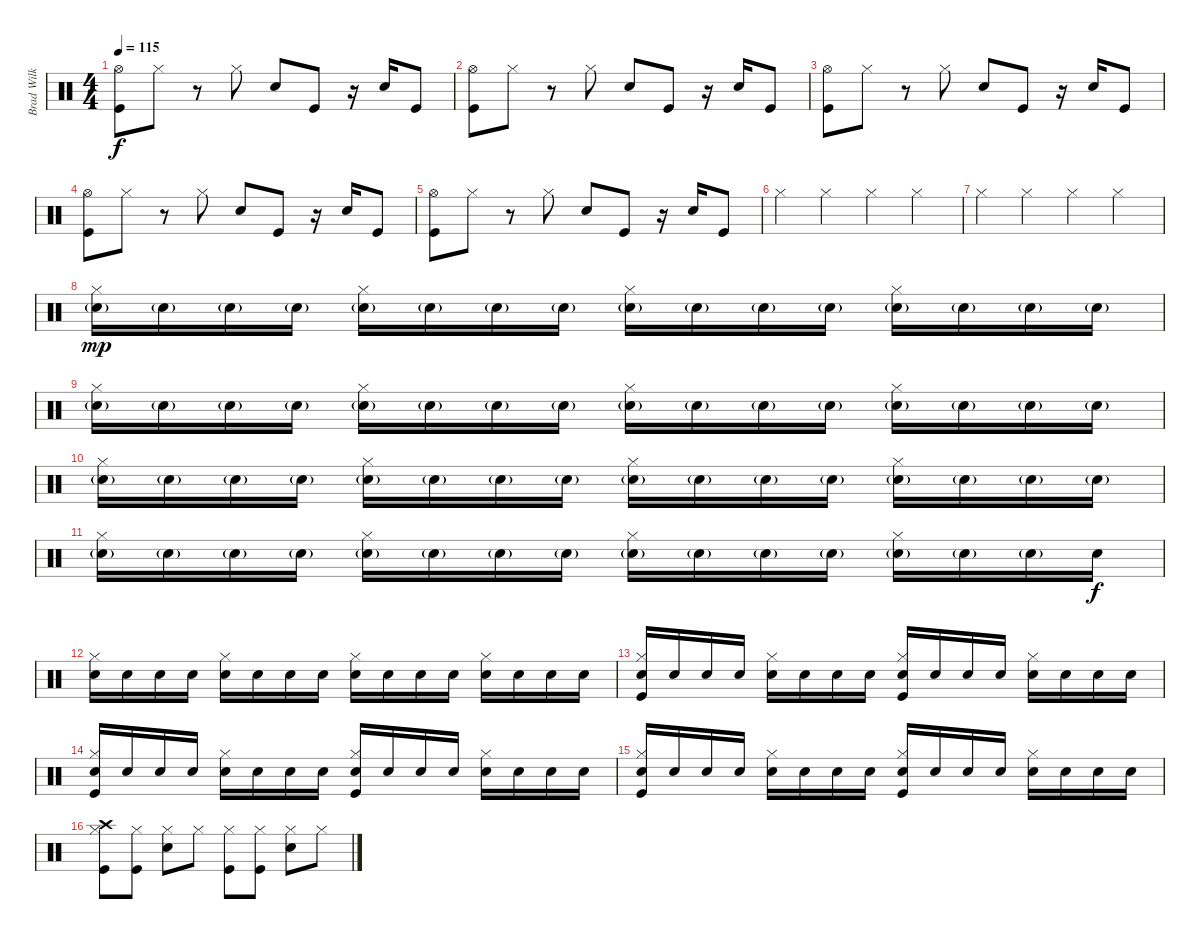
\track ("Brad Wilk - Drums" "Brad Wilk ") {instrument percussion}
\staff {score}
\articulation defaults
\ts (4 4)
\tempo 115
\clef neutral
\ks c
("Hi-Hat (open)" "Kick (hit)").8{dy f} "Hi-Hat (closed)".8 r.8 "Hi-Hat (closed)".8 "Snare (hit) 2".8 "Kick (hit)".8 r.16 "Snare (hit) 2".16 "Kick (hit)".8 |
("Hi-Hat (open)" "Kick (hit)").8 "Hi-Hat (closed)".8 r.8 "Hi-Hat (closed)".8 "Snare (hit) 2".8 "Kick (hit)".8 r.16 "Snare (hit) 2".16 "Kick (hit)".8 |
("Hi-Hat (open)" "Kick (hit)").8 "Hi-Hat (closed)".8 r.8 "Hi-Hat (closed)".8 "Snare (hit) 2".8 "Kick (hit)".8 r.16 "Snare (hit) 2".16 "Kick (hit)".8 |
("Hi-Hat (open)" "Kick (hit)").8 "Hi-Hat (closed)".8 r.8 "Hi-Hat (closed)".8 "Snare (hit) 2".8 "Kick (hit)".8 r.16 "Snare (hit) 2".16 "Kick (hit)".8 |
("Hi-Hat (open)" "Kick (hit)").8 "Hi-Hat (closed)".8 r.8 "Hi-Hat (closed)".8 "Snare (hit) 2".8 "Kick (hit)".8 r.16 "Snare (hit) 2".16 "Kick (hit)".8 |
"Hi-Hat (closed)".4 "Hi-Hat (closed)".4 "Hi-Hat (closed)".4 "Hi-Hat (closed)".4 |
"Hi-Hat (closed)".4 "Hi-Hat (closed)".4 "Hi-Hat (closed)".4 "Hi-Hat (closed)".4 |
("Hi-Hat (closed)" "Snare (hit) 2"{g}).16{dy mp} "Snare (hit) 2"{g}.16 "Snare (hit) 2"{g}.16 "Snare (hit) 2"{g}.16 ("Hi-Hat (closed)" "Snare (hit) 2"{g}).16 "Snare (hit) 2"{g}.16 "Snare (hit) 2"{g}.16 "Snare (hit) 2"{g}.16 ("Hi-Hat (closed)" "Snare (hit) 2"{g}).16 "Snare (hit) 2"{g}.16 "Snare (hit) 2"{g}.16 "Snare (hit) 2"{g}.16 ("Hi-Hat (closed)" "Snare (hit) 2"{g}).16 "Snare (hit) 2"{g}.16 "Snare (hit) 2"{g}.16 "Snare (hit) 2"{g}.16 |
("Hi-Hat (closed)" "Snare (hit) 2"{g}).16 "Snare (hit) 2"{g}.16 "Snare (hit) 2"{g}.16 "Snare (hit) 2"{g}.16 ("Hi-Hat (closed)" "Snare (hit) 2"{g}).16 "Snare (hit) 2"{g}.16 "Snare (hit) 2"{g}.16 "Snare (hit) 2"{g}.16 ("Hi-Hat (closed)" "Snare (hit) 2"{g}).16 "Snare (hit) 2"{g}.16 "Snare (hit) 2"{g}.16 "Snare (hit) 2"{g}.16 ("Hi-Hat (closed)" "Snare (hit) 2"{g}).16 "Snare (hit) 2"{g}.16 "Snare (hit) 2"{g}.16 "Snare (hit) 2"{g}.16 |
("Hi-Hat (closed)" "Snare (hit) 2"{g}).16 "Snare (hit) 2"{g}.16 "Snare (hit) 2"{g}.16 "Snare (hit) 2"{g}.16 ("Hi-Hat (closed)" "Snare (hit) 2"{g}).16 "Snare (hit) 2"{g}.16 "Snare (hit) 2"{g}.16 "Snare (hit) 2"{g}.16 ("Hi-Hat (closed)" "Snare (hit) 2"{g}).16 "Snare (hit) 2"{g}.16 "Snare (hit) 2"{g}.16 "Snare (hit) 2"{g}.16 ("Hi-Hat (closed)" "Snare (hit) 2"{g}).16 "Snare (hit) 2"{g}.16 "Snare (hit) 2"{g}.16 "Snare (hit) 2"{g}.16 |
("Hi-Hat (closed)" "Snare (hit) 2"{g}).16 "Snare (hit) 2"{g}.16 "Snare (hit) 2"{g}.16 "Snare (hit) 2"{g}.16 ("Hi-Hat (closed)" "Snare (hit) 2"{g}).16 "Snare (hit) 2"{g}.16 "Snare (hit) 2"{g}.16 "Snare (hit) 2"{g}.16 ("Hi-Hat (closed)" "Snare (hit) 2"{g}).16 "Snare (hit) 2"{g}.16 "Snare (hit) 2"{g}.16 "Snare (hit) 2"{g}.16 ("Hi-Hat (closed)" "Snare (hit) 2"{g}).16 "Snare (hit) 2"{g}.16 "Snare (hit) 2"{g}.16 "Snare (hit) 2".16{dy f volume 7} |
("Hi-Hat (closed)" "Snare (hit) 2").16 "Snare (hit) 2".16 "Snare (hit) 2".16 "Snare (hit) 2".16 ("Hi-Hat (closed)" "Snare (hit) 2").16 "Snare (hit) 2".16 "Snare (hit) 2".16 "Snare (hit) 2".16 ("Hi-Hat (closed)" "Snare (hit) 2").16 "Snare (hit) 2".16 "Snare (hit) 2".16 "Snare (hit) 2".16 ("Hi-Hat (closed)" "Snare (hit) 2").16 "Snare (hit) 2".16 "Snare (hit) 2".16 "Snare (hit) 2".16 |
("Hi-Hat (closed)" "Snare (hit) 2" "Kick (hit)").16{volume 15} "Snare (hit) 2".16 "Snare (hit) 2".16 "Snare (hit) 2".16 ("Hi-Hat (closed)" "Snare (hit) 2").16 "Snare (hit) 2".16 "Snare (hit) 2".16 "Snare (hit) 2".16 ("Hi-Hat (closed)" "Snare (hit) 2" "Kick (hit)").16 "Snare (hit) 2".16 "Snare (hit) 2".16 "Snare (hit) 2".16 ("Hi-Hat (closed)" "Snare (hit) 2").16 "Snare (hit) 2".16 "Snare (hit) 2".16 "Snare (hit) 2".16 |
("Hi-Hat (closed)" "Snare (hit) 2" "Kick (hit)").16 "Snare (hit) 2".16 "Snare (hit) 2".16 "Snare (hit) 2".16 ("Hi-Hat (closed)" "Snare (hit) 2").16 "Snare (hit) 2".16 "Snare (hit) 2".16 "Snare (hit) 2".16 ("Hi-Hat (closed)" "Snare (hit) 2" "Kick (hit)").16 "Snare (hit) 2".16 "Snare (hit) 2".16 "Snare (hit) 2".16 ("Hi-Hat (closed)" "Snare (hit) 2").16 "Snare (hit) 2".16 "Snare (hit) 2".16 "Snare (hit) 2".16 |
("Hi-Hat (closed)" "Snare (hit) 2" "Kick (hit)").16 "Snare (hit) 2".16 "Snare (hit) 2".16 "Snare (hit) 2".16 ("Hi-Hat (closed)" "Snare (hit) 2").16 "Snare (hit) 2".16 "Snare (hit) 2".16 "Snare (hit) 2".16 ("Hi-Hat (closed)" "Snare (hit) 2" "Kick (hit)").16 "Snare (hit) 2".16 "Snare (hit) 2".16 "Snare (hit) 2".16 ("Hi-Hat (closed)" "Snare (hit) 2").16 "Snare (hit) 2".16 "Snare (hit) 2".16 "Snare (hit) 2".16 |
("Crash high (hit)" "Hi-Hat (closed)" "Kick (hit)").8 ("Hi-Hat (closed)" "Kick (hit)").8 ("Snare (hit) 2" "Hi-Hat (closed)").8 "Hi-Hat (closed)".8 ("Hi-Hat (closed)" "Kick (hit)").8 ("Hi-Hat (closed)" "Kick (hit)").8 ("Snare (hit) 2" "Hi-Hat (closed)").8 "Hi-Hat (closed)".8
